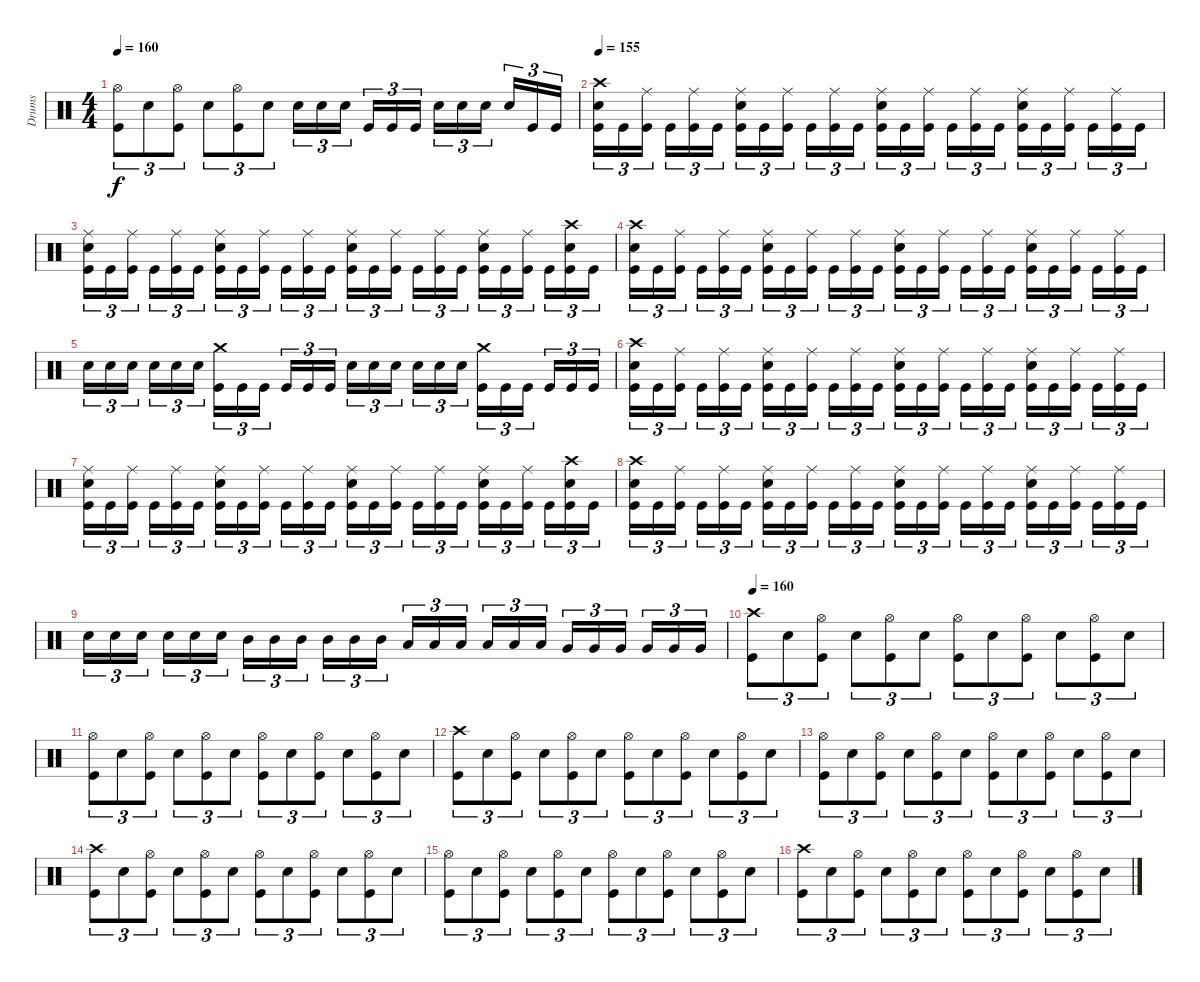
\track ("Drums" "Drums") {instrument percussion}
\staff {score}
\articulation defaults
\ts (4 4)
\tempo 160
\clef neutral
\ks c
("Hi-Hat (open)" "Kick (hit)").8{tu (3 2) dy f} "Electric Snare (hit)".8{tu (3 2)} ("Hi-Hat (open)" "Kick (hit)").8{tu (3 2)} "Electric Snare (hit)".8{tu (3 2)} ("Hi-Hat (open)" "Kick (hit)").8{tu (3 2)} "Electric Snare (hit)".8{tu (3 2)} "Electric Snare (hit)".16{tu (3 2)} "Electric Snare (hit)".16{tu (3 2)} "Electric Snare (hit)".16{tu (3 2)} "Kick (hit)".16{tu (3 2)} "Kick (hit)".16{tu (3 2)} "Kick (hit)".16{tu (3 2)} "Electric Snare (hit)".16{tu (3 2)} "Electric Snare (hit)".16{tu (3 2)} "Electric Snare (hit)".16{tu (3 2)} "Electric Snare (hit)".16{tu (3 2)} "Kick (hit)".16{tu (3 2)} "Kick (hit)".16{tu (3 2)} |
\tempo 155
("Crash high (hit)" "Electric Snare (hit)" "Kick (hit)").16{tu (3 2)} "Kick (hit)".16{tu (3 2)} ("Ride (middle)" "Kick (hit)").16{tu (3 2)} "Kick (hit)".16{tu (3 2)} ("Ride (middle)" "Kick (hit)").16{tu (3 2)} "Kick (hit)".16{tu (3 2)} ("Ride (middle)" "Electric Snare (hit)" "Kick (hit)").16{tu (3 2)} "Kick (hit)".16{tu (3 2)} ("Ride (middle)" "Kick (hit)").16{tu (3 2)} "Kick (hit)".16{tu (3 2)} ("Ride (middle)" "Kick (hit)").16{tu (3 2)} "Kick (hit)".16{tu (3 2)} ("Ride (middle)" "Electric Snare (hit)" "Kick (hit)").16{tu (3 2)} "Kick (hit)".16{tu (3 2)} ("Ride (middle)" "Kick (hit)").16{tu (3 2)} "Kick (hit)".16{tu (3 2)} ("Ride (middle)" "Kick (hit)").16{tu (3 2)} "Kick (hit)".16{tu (3 2)} ("Ride (middle)" "Electric Snare (hit)" "Kick (hit)").16{tu (3 2)} "Kick (hit)".16{tu (3 2)} ("Ride (middle)" "Kick (hit)").16{tu (3 2)} "Kick (hit)".16{tu (3 2)} ("Ride (middle)" "Kick (hit)").16{tu (3 2)} "Kick (hit)".16{tu (3 2)} |
("Ride (middle)" "Electric Snare (hit)" "Kick (hit)").16{tu (3 2)} "Kick (hit)".16{tu (3 2)} ("Ride (middle)" "Kick (hit)").16{tu (3 2)} "Kick (hit)".16{tu (3 2)} ("Ride (middle)" "Kick (hit)").16{tu (3 2)} "Kick (hit)".16{tu (3 2)} ("Ride (middle)" "Electric Snare (hit)" "Kick (hit)").16{tu (3 2)} "Kick (hit)".16{tu (3 2)} ("Ride (middle)" "Kick (hit)").16{tu (3 2)} "Kick (hit)".16{tu (3 2)} ("Ride (middle)" "Kick (hit)").16{tu (3 2)} "Kick (hit)".16{tu (3 2)} ("Ride (middle)" "Electric Snare (hit)" "Kick (hit)").16{tu (3 2)} "Kick (hit)".16{tu (3 2)} ("Ride (middle)" "Kick (hit)").16{tu (3 2)} "Kick (hit)".16{tu (3 2)} ("Ride (middle)" "Kick (hit)").16{tu (3 2)} "Kick (hit)".16{tu (3 2)} ("Ride (middle)" "Electric Snare (hit)" "Kick (hit)").16{tu (3 2)} "Kick (hit)".16{tu (3 2)} ("Ride (middle)" "Kick (hit)").16{tu (3 2)} "Kick (hit)".16{tu (3 2)} ("Crash high (hit)" "Electric Snare (hit)" "Kick (hit)").16{tu (3 2)} "Kick (hit)".16{tu (3 2)} |
("Crash high (hit)" "Electric Snare (hit)" "Kick (hit)").16{tu (3 2)} "Kick (hit)".16{tu (3 2)} ("Ride (middle)" "Kick (hit)").16{tu (3 2)} "Kick (hit)".16{tu (3 2)} ("Ride (middle)" "Kick (hit)").16{tu (3 2)} "Kick (hit)".16{tu (3 2)} ("Ride (middle)" "Electric Snare (hit)" "Kick (hit)").16{tu (3 2)} "Kick (hit)".16{tu (3 2)} ("Ride (middle)" "Kick (hit)").16{tu (3 2)} "Kick (hit)".16{tu (3 2)} ("Ride (middle)" "Kick (hit)").16{tu (3 2)} "Kick (hit)".16{tu (3 2)} ("Ride (middle)" "Electric Snare (hit)" "Kick (hit)").16{tu (3 2)} "Kick (hit)".16{tu (3 2)} ("Ride (middle)" "Kick (hit)").16{tu (3 2)} "Kick (hit)".16{tu (3 2)} ("Ride (middle)" "Kick (hit)").16{tu (3 2)} "Kick (hit)".16{tu (3 2)} ("Ride (middle)" "Electric Snare (hit)" "Kick (hit)").16{tu (3 2)} "Kick (hit)".16{tu (3 2)} ("Ride (middle)" "Kick (hit)").16{tu (3 2)} "Kick (hit)".16{tu (3 2)} ("Ride (middle)" "Kick (hit)").16{tu (3 2)} "Kick (hit)".16{tu (3 2)} |
"Electric Snare (hit)".16{tu (3 2)} "Electric Snare (hit)".16{tu (3 2)} "Electric Snare (hit)".16{tu (3 2)} "Electric Snare (hit)".16{tu (3 2)} "Electric Snare (hit)".16{tu (3 2)} "Electric Snare (hit)".16{tu (3 2)} ("Crash medium (hit)" "Kick (hit)").16{tu (3 2)} "Kick (hit)".16{tu (3 2)} "Kick (hit)".16{tu (3 2)} "Kick (hit)".16{tu (3 2)} "Kick (hit)".16{tu (3 2)} "Kick (hit)".16{tu (3 2)} "Electric Snare (hit)".16{tu (3 2)} "Electric Snare (hit)".16{tu (3 2)} "Electric Snare (hit)".16{tu (3 2)} "Electric Snare (hit)".16{tu (3 2)} "Electric Snare (hit)".16{tu (3 2)} "Electric Snare (hit)".16{tu (3 2)} ("Crash medium (hit)" "Kick (hit)").16{tu (3 2)} "Kick (hit)".16{tu (3 2)} "Kick (hit)".16{tu (3 2)} "Kick (hit)".16{tu (3 2)} "Kick (hit)".16{tu (3 2)} "Kick (hit)".16{tu (3 2)} |
("Crash high (hit)" "Electric Snare (hit)" "Kick (hit)").16{tu (3 2)} "Kick (hit)".16{tu (3 2)} ("Ride (middle)" "Kick (hit)").16{tu (3 2)} "Kick (hit)".16{tu (3 2)} ("Ride (middle)" "Kick (hit)").16{tu (3 2)} "Kick (hit)".16{tu (3 2)} ("Ride (middle)" "Electric Snare (hit)" "Kick (hit)").16{tu (3 2)} "Kick (hit)".16{tu (3 2)} ("Ride (middle)" "Kick (hit)").16{tu (3 2)} "Kick (hit)".16{tu (3 2)} ("Ride (middle)" "Kick (hit)").16{tu (3 2)} "Kick (hit)".16{tu (3 2)} ("Ride (middle)" "Electric Snare (hit)" "Kick (hit)").16{tu (3 2)} "Kick (hit)".16{tu (3 2)} ("Ride (middle)" "Kick (hit)").16{tu (3 2)} "Kick (hit)".16{tu (3 2)} ("Ride (middle)" "Kick (hit)").16{tu (3 2)} "Kick (hit)".16{tu (3 2)} ("Ride (middle)" "Electric Snare (hit)" "Kick (hit)").16{tu (3 2)} "Kick (hit)".16{tu (3 2)} ("Ride (middle)" "Kick (hit)").16{tu (3 2)} "Kick (hit)".16{tu (3 2)} ("Ride (middle)" "Kick (hit)").16{tu (3 2)} "Kick (hit)".16{tu (3 2)} |
("Ride (middle)" "Electric Snare (hit)" "Kick (hit)").16{tu (3 2)} "Kick (hit)".16{tu (3 2)} ("Ride (middle)" "Kick (hit)").16{tu (3 2)} "Kick (hit)".16{tu (3 2)} ("Ride (middle)" "Kick (hit)").16{tu (3 2)} "Kick (hit)".16{tu (3 2)} ("Ride (middle)" "Electric Snare (hit)" "Kick (hit)").16{tu (3 2)} "Kick (hit)".16{tu (3 2)} ("Ride (middle)" "Kick (hit)").16{tu (3 2)} "Kick (hit)".16{tu (3 2)} ("Ride (middle)" "Kick (hit)").16{tu (3 2)} "Kick (hit)".16{tu (3 2)} ("Ride (middle)" "Electric Snare (hit)" "Kick (hit)").16{tu (3 2)} "Kick (hit)".16{tu (3 2)} ("Ride (middle)" "Kick (hit)").16{tu (3 2)} "Kick (hit)".16{tu (3 2)} ("Ride (middle)" "Kick (hit)").16{tu (3 2)} "Kick (hit)".16{tu (3 2)} ("Ride (middle)" "Electric Snare (hit)" "Kick (hit)").16{tu (3 2)} "Kick (hit)".16{tu (3 2)} ("Ride (middle)" "Kick (hit)").16{tu (3 2)} "Kick (hit)".16{tu (3 2)} ("Crash high (hit)" "Electric Snare (hit)" "Kick (hit)").16{tu (3 2)} "Kick (hit)".16{tu (3 2)} |
("Crash high (hit)" "Electric Snare (hit)" "Kick (hit)").16{tu (3 2)} "Kick (hit)".16{tu (3 2)} ("Ride (middle)" "Kick (hit)").16{tu (3 2)} "Kick (hit)".16{tu (3 2)} ("Ride (middle)" "Kick (hit)").16{tu (3 2)} "Kick (hit)".16{tu (3 2)} ("Ride (middle)" "Electric Snare (hit)" "Kick (hit)").16{tu (3 2)} "Kick (hit)".16{tu (3 2)} ("Ride (middle)" "Kick (hit)").16{tu (3 2)} "Kick (hit)".16{tu (3 2)} ("Ride (middle)" "Kick (hit)").16{tu (3 2)} "Kick (hit)".16{tu (3 2)} ("Ride (middle)" "Electric Snare (hit)" "Kick (hit)").16{tu (3 2)} "Kick (hit)".16{tu (3 2)} ("Ride (middle)" "Kick (hit)").16{tu (3 2)} "Kick (hit)".16{tu (3 2)} ("Ride (middle)" "Kick (hit)").16{tu (3 2)} "Kick (hit)".16{tu (3 2)} ("Ride (middle)" "Electric Snare (hit)" "Kick (hit)").16{tu (3 2)} "Kick (hit)".16{tu (3 2)} ("Ride (middle)" "Kick (hit)").16{tu (3 2)} "Kick (hit)".16{tu (3 2)} ("Ride (middle)" "Kick (hit)").16{tu (3 2)} "Kick (hit)".16{tu (3 2)} |
"Electric Snare (hit)".16{tu (3 2)} "Electric Snare (hit)".16{tu (3 2)} "Electric Snare (hit)".16{tu (3 2)} "Electric Snare (hit)".16{tu (3 2)} "Electric Snare (hit)".16{tu (3 2)} "Electric Snare (hit)".16{tu (3 2)} "Mid Tom (hit)".16{tu (3 2)} "Mid Tom (hit)".16{tu (3 2)} "Mid Tom (hit)".16{tu (3 2)} "Mid Tom (hit)".16{tu (3 2)} "Mid Tom (hit)".16{tu (3 2)} "Mid Tom (hit)".16{tu (3 2)} "Low Tom (hit)".16{tu (3 2)} "Low Tom (hit)".16{tu (3 2)} "Low Tom (hit)".16{tu (3 2)} "Low Tom (hit)".16{tu (3 2)} "Low Tom (hit)".16{tu (3 2)} "Low Tom (hit)".16{tu (3 2)} "Very Low Tom (hit)".16{tu (3 2)} "Very Low Tom (hit)".16{tu (3 2)} "Very Low Tom (hit)".16{tu (3 2)} "Very Low Tom (hit)".16{tu (3 2)} "Very Low Tom (hit)".16{tu (3 2)} "Very Low Tom (hit)".16{tu (3 2)} |
\tempo 160
("Crash high (hit)" "Kick (hit)").8{tu (3 2)} "Electric Snare (hit)".8{tu (3 2)} ("Hi-Hat (open)" "Kick (hit)").8{tu (3 2)} "Electric Snare (hit)".8{tu (3 2)} ("Hi-Hat (open)" "Kick (hit)").8{tu (3 2)} "Electric Snare (hit)".8{tu (3 2)} ("Hi-Hat (open)" "Kick (hit)").8{tu (3 2)} "Electric Snare (hit)".8{tu (3 2)} ("Hi-Hat (open)" "Kick (hit)").8{tu (3 2)} "Electric Snare (hit)".8{tu (3 2)} ("Hi-Hat (open)" "Kick (hit)").8{tu (3 2)} "Electric Snare (hit)".8{tu (3 2)} |
("Hi-Hat (open)" "Kick (hit)").8{tu (3 2)} "Electric Snare (hit)".8{tu (3 2)} ("Hi-Hat (open)" "Kick (hit)").8{tu (3 2)} "Electric Snare (hit)".8{tu (3 2)} ("Hi-Hat (open)" "Kick (hit)").8{tu (3 2)} "Electric Snare (hit)".8{tu (3 2)} ("Hi-Hat (open)" "Kick (hit)").8{tu (3 2)} "Electric Snare (hit)".8{tu (3 2)} ("Hi-Hat (open)" "Kick (hit)").8{tu (3 2)} "Electric Snare (hit)".8{tu (3 2)} ("Hi-Hat (open)" "Kick (hit)").8{tu (3 2)} "Electric Snare (hit)".8{tu (3 2)} |
("Crash high (hit)" "Kick (hit)").8{tu (3 2)} "Electric Snare (hit)".8{tu (3 2)} ("Hi-Hat (open)" "Kick (hit)").8{tu (3 2)} "Electric Snare (hit)".8{tu (3 2)} ("Hi-Hat (open)" "Kick (hit)").8{tu (3 2)} "Electric Snare (hit)".8{tu (3 2)} ("Hi-Hat (open)" "Kick (hit)").8{tu (3 2)} "Electric Snare (hit)".8{tu (3 2)} ("Hi-Hat (open)" "Kick (hit)").8{tu (3 2)} "Electric Snare (hit)".8{tu (3 2)} ("Hi-Hat (open)" "Kick (hit)").8{tu (3 2)} "Electric Snare (hit)".8{tu (3 2)} |
("Hi-Hat (open)" "Kick (hit)").8{tu (3 2)} "Electric Snare (hit)".8{tu (3 2)} ("Hi-Hat (open)" "Kick (hit)").8{tu (3 2)} "Electric Snare (hit)".8{tu (3 2)} ("Hi-Hat (open)" "Kick (hit)").8{tu (3 2)} "Electric Snare (hit)".8{tu (3 2)} ("Hi-Hat (open)" "Kick (hit)").8{tu (3 2)} "Electric Snare (hit)".8{tu (3 2)} ("Hi-Hat (open)" "Kick (hit)").8{tu (3 2)} "Electric Snare (hit)".8{tu (3 2)} ("Hi-Hat (open)" "Kick (hit)").8{tu (3 2)} "Electric Snare (hit)".8{tu (3 2)} |
("Crash high (hit)" "Kick (hit)").8{tu (3 2)} "Electric Snare (hit)".8{tu (3 2)} ("Hi-Hat (open)" "Kick (hit)").8{tu (3 2)} "Electric Snare (hit)".8{tu (3 2)} ("Hi-Hat (open)" "Kick (hit)").8{tu (3 2)} "Electric Snare (hit)".8{tu (3 2)} ("Hi-Hat (open)" "Kick (hit)").8{tu (3 2)} "Electric Snare (hit)".8{tu (3 2)} ("Hi-Hat (open)" "Kick (hit)").8{tu (3 2)} "Electric Snare (hit)".8{tu (3 2)} ("Hi-Hat (open)" "Kick (hit)").8{tu (3 2)} "Electric Snare (hit)".8{tu (3 2)} |
("Hi-Hat (open)" "Kick (hit)").8{tu (3 2)} "Electric Snare (hit)".8{tu (3 2)} ("Hi-Hat (open)" "Kick (hit)").8{tu (3 2)} "Electric Snare (hit)".8{tu (3 2)} ("Hi-Hat (open)" "Kick (hit)").8{tu (3 2)} "Electric Snare (hit)".8{tu (3 2)} ("Hi-Hat (open)" "Kick (hit)").8{tu (3 2)} "Electric Snare (hit)".8{tu (3 2)} ("Hi-Hat (open)" "Kick (hit)").8{tu (3 2)} "Electric Snare (hit)".8{tu (3 2)} ("Hi-Hat (open)" "Kick (hit)").8{tu (3 2)} "Electric Snare (hit)".8{tu (3 2)} |
("Crash high (hit)" "Kick (hit)").8{tu (3 2)} "Electric Snare (hit)".8{tu (3 2)} ("Hi-Hat (open)" "Kick (hit)").8{tu (3 2)} "Electric Snare (hit)".8{tu (3 2)} ("Hi-Hat (open)" "Kick (hit)").8{tu (3 2)} "Electric Snare (hit)".8{tu (3 2)} ("Hi-Hat (open)" "Kick (hit)").8{tu (3 2)} "Electric Snare (hit)".8{tu (3 2)} ("Hi-Hat (open)" "Kick (hit)").8{tu (3 2)} "Electric Snare (hit)".8{tu (3 2)} ("Hi-Hat (open)" "Kick (hit)").8{tu (3 2)} "Electric Snare (hit)".8{tu (3 2)}
